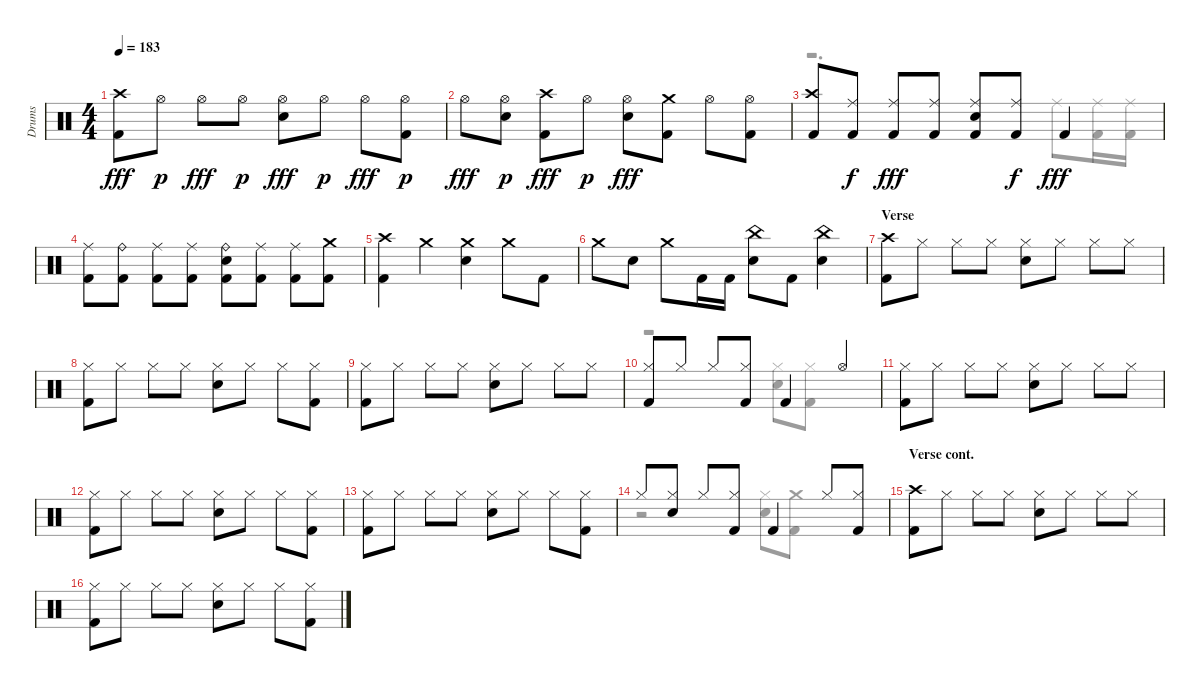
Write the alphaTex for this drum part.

\track ("Drums" "Drums") {instrument percussion}
\staff {score}
\articulation defaults
\voice
\ts (4 4)
\tempo 183
\clef neutral
\ks aminor
("Kick (hit) 2" "Crash high (hit)").8{dy fff} "Hi-Hat (open)".8{dy p} "Hi-Hat (open)".8{dy fff} "Hi-Hat (open)".8{dy p} ("Hi-Hat (open)" "Snare (hit) 2").8{dy fff} "Hi-Hat (open)".8{dy p} "Hi-Hat (open)".8{dy fff} ("Hi-Hat (open)" "Kick (hit) 2").8{dy p} |
"Hi-Hat (open)".8{dy fff} ("Hi-Hat (open)" "Snare (hit) 2").8{dy p} ("Kick (hit) 2" "Crash high (hit)").8{dy fff} "Hi-Hat (open)".8{dy p} ("Snare (hit) 2" "Hi-Hat (open)").8{dy fff} ("Kick (hit) 2" "Crash medium (hit)").8 "Hi-Hat (open)".8 ("Hi-Hat (open)" "Kick (hit) 2").8 |
("Crash high (hit)" "Kick (hit) 2").8 ("Kick (hit) 2" "Ride (middle)").8{dy f} ("Ride (middle)" "Kick (hit) 2").8{dy fff} ("Ride (middle)" "Kick (hit) 2").8 ("Kick (hit) 2" "Snare (hit) 2" "Ride (middle)").8 ("Kick (hit) 2" "Ride (middle)").8{dy f} "Kick (hit) 2".4{dy fff} |
("Kick (hit) 2" "Ride (middle)").8 ("Ride (bell)" "Kick (hit) 2").8 ("Kick (hit) 2" "Ride (middle)").8 ("Kick (hit) 2" "Ride (middle)").8 ("Kick (hit) 2" "Snare (hit) 2" "Ride (bell)").8 ("Kick (hit) 2" "Ride (middle)").8 ("Kick (hit) 2" "Ride (middle)").8 ("Kick (hit) 2" "Crash medium (hit)").8 |
("Crash high (hit)" "Kick (hit) 2").4 "Crash medium (hit)".4 ("Crash medium (hit)" "Snare (hit) 2").4 "Crash medium (hit)".8 "Kick (hit) 2".8 |
"Crash medium (hit)".8 "Snare (hit) 2".8 "Crash medium (hit)".8 "Kick (hit) 2".16 "Kick (hit) 2".16 ("China (hit)" "Snare (hit) 2").8 "Kick (hit) 2".8 ("China (hit)" "Snare (hit) 2").4 |
\section ("" "Verse")
("Crash high (hit)" "Kick (hit) 2").8 "Hi-Hat (closed)".8 "Hi-Hat (closed)".8 "Hi-Hat (closed)".8 ("Hi-Hat (closed)" "Snare (hit) 2").8 "Hi-Hat (closed)".8 "Hi-Hat (closed)".8 "Hi-Hat (closed)".8 |
("Kick (hit) 2" "Hi-Hat (closed)").8 "Hi-Hat (closed)".8 "Hi-Hat (closed)".8 "Hi-Hat (closed)".8 ("Snare (hit) 2" "Hi-Hat (closed)").8 "Hi-Hat (closed)".8 "Hi-Hat (closed)".8 ("Hi-Hat (closed)" "Kick (hit) 2").8 |
("Kick (hit) 2" "Hi-Hat (closed)").8 "Hi-Hat (closed)".8 "Hi-Hat (closed)".8 "Hi-Hat (closed)".8 ("Hi-Hat (closed)" "Snare (hit) 2").8 "Hi-Hat (closed)".8 "Hi-Hat (closed)".8 "Hi-Hat (closed)".8 |
("Hi-Hat (closed)" "Kick (hit) 2").8 "Hi-Hat (closed)".8 "Hi-Hat (closed)".8 ("Kick (hit) 2" "Hi-Hat (closed)").8 "Kick (hit) 2".4 "Hi-Hat (open)".4 |
("Hi-Hat (closed)" "Kick (hit) 2").8 "Hi-Hat (closed)".8 "Hi-Hat (closed)".8 "Hi-Hat (closed)".8 ("Hi-Hat (closed)" "Snare (hit) 2").8 "Hi-Hat (closed)".8 "Hi-Hat (closed)".8 "Hi-Hat (closed)".8 |
("Hi-Hat (closed)" "Kick (hit) 2").8 "Hi-Hat (closed)".8 "Hi-Hat (closed)".8 "Hi-Hat (closed)".8 ("Hi-Hat (closed)" "Snare (hit) 2").8 "Hi-Hat (closed)".8 "Hi-Hat (closed)".8 ("Kick (hit) 2" "Hi-Hat (closed)").8 |
("Hi-Hat (closed)" "Kick (hit) 2").8 "Hi-Hat (closed)".8 "Hi-Hat (closed)".8 "Hi-Hat (closed)".8 ("Snare (hit) 2" "Hi-Hat (closed)").8 "Hi-Hat (closed)".8 "Hi-Hat (closed)".8 ("Hi-Hat (closed)" "Kick (hit) 2").8 |
"Hi-Hat (closed)".8 ("Snare (hit) 2" "Hi-Hat (closed)").8 "Hi-Hat (closed)".8 ("Hi-Hat (closed)" "Kick (hit) 2").8 "Kick (hit) 2".4 "Hi-Hat (closed)".8 ("Kick (hit) 2" "Hi-Hat (closed)").8 |
\section ("" "Verse cont.")
("Crash high (hit)" "Kick (hit) 2").8 "Hi-Hat (closed)".8 "Hi-Hat (closed)".8 "Hi-Hat (closed)".8 ("Hi-Hat (closed)" "Snare (hit) 2").8 "Hi-Hat (closed)".8 "Hi-Hat (closed)".8 "Hi-Hat (closed)".8 |
("Hi-Hat (closed)" "Kick (hit) 2").8 "Hi-Hat (closed)".8 "Hi-Hat (closed)".8 "Hi-Hat (closed)".8 ("Hi-Hat (closed)" "Snare (hit) 2").8 "Hi-Hat (closed)".8 "Hi-Hat (closed)".8 ("Kick (hit) 2" "Hi-Hat (closed)").8
\voice
\clef neutral
\ottava regular
\simile none
\ks aminor
|
|
r.2{d} "Ride (middle)".8 ("Kick (hit) 2" "Ride (middle)").16 ("Ride (middle)" "Kick (hit) 2").16 |
|
|
|
|
|
|
r.2 ("Hi-Hat (closed)" "Snare (hit) 2").8 ("Kick (hit) 2" "Hi-Hat (closed)").8 |
|
|
|
r.2 ("Snare (hit) 2" "Hi-Hat (closed)").8 ("Kick (hit) 2" "Crash medium (hit)").8 |
|
